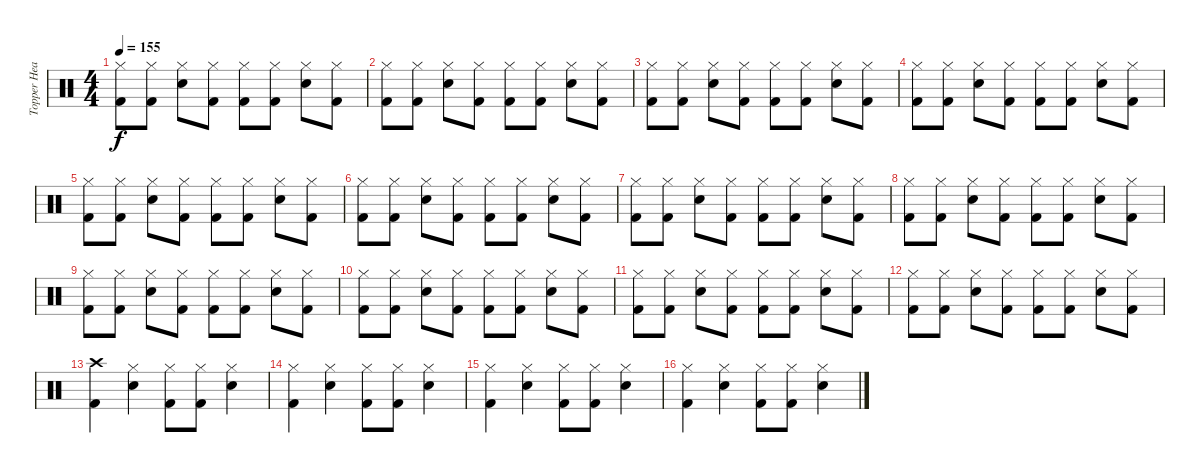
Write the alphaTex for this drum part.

\track ("Topper Headon - Drums" "Topper Hea") {instrument percussion}
\staff {score}
\articulation defaults
\ts (4 4)
\tempo 155
\clef neutral
\ks c
("Kick (hit) 2" "Hi-Hat (closed)").8{dy f} ("Kick (hit) 2" "Hi-Hat (closed)").8 ("Snare (hit) 2" "Hi-Hat (closed)").8 ("Kick (hit) 2" "Hi-Hat (closed)").8 ("Kick (hit) 2" "Hi-Hat (closed)").8 ("Kick (hit) 2" "Hi-Hat (closed)").8 ("Snare (hit) 2" "Hi-Hat (closed)").8 ("Kick (hit) 2" "Hi-Hat (closed)").8 |
("Kick (hit) 2" "Hi-Hat (closed)").8 ("Kick (hit) 2" "Hi-Hat (closed)").8 ("Snare (hit) 2" "Hi-Hat (closed)").8 ("Kick (hit) 2" "Hi-Hat (closed)").8 ("Kick (hit) 2" "Hi-Hat (closed)").8 ("Kick (hit) 2" "Hi-Hat (closed)").8 ("Snare (hit) 2" "Hi-Hat (closed)").8 ("Kick (hit) 2" "Hi-Hat (closed)").8 |
("Kick (hit) 2" "Hi-Hat (closed)").8 ("Kick (hit) 2" "Hi-Hat (closed)").8 ("Snare (hit) 2" "Hi-Hat (closed)").8 ("Kick (hit) 2" "Hi-Hat (closed)").8 ("Kick (hit) 2" "Hi-Hat (closed)").8 ("Kick (hit) 2" "Hi-Hat (closed)").8 ("Snare (hit) 2" "Hi-Hat (closed)").8 ("Kick (hit) 2" "Hi-Hat (closed)").8 |
("Kick (hit) 2" "Hi-Hat (closed)").8 ("Kick (hit) 2" "Hi-Hat (closed)").8 ("Snare (hit) 2" "Hi-Hat (closed)").8 ("Kick (hit) 2" "Hi-Hat (closed)").8 ("Kick (hit) 2" "Hi-Hat (closed)").8 ("Kick (hit) 2" "Hi-Hat (closed)").8 ("Snare (hit) 2" "Hi-Hat (closed)").8 ("Kick (hit) 2" "Hi-Hat (closed)").8 |
("Kick (hit) 2" "Hi-Hat (closed)").8 ("Kick (hit) 2" "Hi-Hat (closed)").8 ("Snare (hit) 2" "Hi-Hat (closed)").8 ("Kick (hit) 2" "Hi-Hat (closed)").8 ("Kick (hit) 2" "Hi-Hat (closed)").8 ("Kick (hit) 2" "Hi-Hat (closed)").8 ("Snare (hit) 2" "Hi-Hat (closed)").8 ("Kick (hit) 2" "Hi-Hat (closed)").8 |
("Kick (hit) 2" "Hi-Hat (closed)").8 ("Kick (hit) 2" "Hi-Hat (closed)").8 ("Snare (hit) 2" "Hi-Hat (closed)").8 ("Kick (hit) 2" "Hi-Hat (closed)").8 ("Kick (hit) 2" "Hi-Hat (closed)").8 ("Kick (hit) 2" "Hi-Hat (closed)").8 ("Snare (hit) 2" "Hi-Hat (closed)").8 ("Kick (hit) 2" "Hi-Hat (closed)").8 |
("Kick (hit) 2" "Hi-Hat (closed)").8 ("Kick (hit) 2" "Hi-Hat (closed)").8 ("Snare (hit) 2" "Hi-Hat (closed)").8 ("Kick (hit) 2" "Hi-Hat (closed)").8 ("Kick (hit) 2" "Hi-Hat (closed)").8 ("Kick (hit) 2" "Hi-Hat (closed)").8 ("Snare (hit) 2" "Hi-Hat (closed)").8 ("Kick (hit) 2" "Hi-Hat (closed)").8 |
("Kick (hit) 2" "Hi-Hat (closed)").8 ("Kick (hit) 2" "Hi-Hat (closed)").8 ("Snare (hit) 2" "Hi-Hat (closed)").8 ("Kick (hit) 2" "Hi-Hat (closed)").8 ("Kick (hit) 2" "Hi-Hat (closed)").8 ("Kick (hit) 2" "Hi-Hat (closed)").8 ("Snare (hit) 2" "Hi-Hat (closed)").8 ("Kick (hit) 2" "Hi-Hat (closed)").8 |
("Kick (hit) 2" "Hi-Hat (closed)").8 ("Kick (hit) 2" "Hi-Hat (closed)").8 ("Snare (hit) 2" "Hi-Hat (closed)").8 ("Kick (hit) 2" "Hi-Hat (closed)").8 ("Kick (hit) 2" "Hi-Hat (closed)").8 ("Kick (hit) 2" "Hi-Hat (closed)").8 ("Snare (hit) 2" "Hi-Hat (closed)").8 ("Kick (hit) 2" "Hi-Hat (closed)").8 |
("Kick (hit) 2" "Hi-Hat (closed)").8 ("Kick (hit) 2" "Hi-Hat (closed)").8 ("Snare (hit) 2" "Hi-Hat (closed)").8 ("Kick (hit) 2" "Hi-Hat (closed)").8 ("Kick (hit) 2" "Hi-Hat (closed)").8 ("Kick (hit) 2" "Hi-Hat (closed)").8 ("Snare (hit) 2" "Hi-Hat (closed)").8 ("Kick (hit) 2" "Hi-Hat (closed)").8 |
("Kick (hit) 2" "Hi-Hat (closed)").8 ("Kick (hit) 2" "Hi-Hat (closed)").8 ("Snare (hit) 2" "Hi-Hat (closed)").8 ("Kick (hit) 2" "Hi-Hat (closed)").8 ("Kick (hit) 2" "Hi-Hat (closed)").8 ("Kick (hit) 2" "Hi-Hat (closed)").8 ("Snare (hit) 2" "Hi-Hat (closed)").8 ("Kick (hit) 2" "Hi-Hat (closed)").8 |
("Kick (hit) 2" "Hi-Hat (closed)").8 ("Kick (hit) 2" "Hi-Hat (closed)").8 ("Snare (hit) 2" "Hi-Hat (closed)").8 ("Kick (hit) 2" "Hi-Hat (closed)").8 ("Kick (hit) 2" "Hi-Hat (closed)").8 ("Kick (hit) 2" "Hi-Hat (closed)").8 ("Snare (hit) 2" "Hi-Hat (closed)").8 ("Kick (hit) 2" "Hi-Hat (closed)").8 |
("Kick (hit) 2" "Crash high (hit)").4 ("Snare (hit) 2" "Hi-Hat (closed)").4 ("Kick (hit) 2" "Hi-Hat (closed)").8 ("Kick (hit) 2" "Hi-Hat (closed)").8 ("Snare (hit) 2" "Hi-Hat (closed)").4 |
("Kick (hit) 2" "Hi-Hat (closed)").4 ("Snare (hit) 2" "Hi-Hat (closed)").4 ("Kick (hit) 2" "Hi-Hat (closed)").8 ("Kick (hit) 2" "Hi-Hat (closed)").8 ("Snare (hit) 2" "Hi-Hat (closed)").4 |
("Kick (hit) 2" "Hi-Hat (closed)").4 ("Snare (hit) 2" "Hi-Hat (closed)").4 ("Kick (hit) 2" "Hi-Hat (closed)").8 ("Kick (hit) 2" "Hi-Hat (closed)").8 ("Snare (hit) 2" "Hi-Hat (closed)").4 |
("Kick (hit) 2" "Hi-Hat (closed)").4 ("Snare (hit) 2" "Hi-Hat (closed)").4 ("Kick (hit) 2" "Hi-Hat (closed)").8 ("Kick (hit) 2" "Hi-Hat (closed)").8 ("Snare (hit) 2" "Hi-Hat (closed)").4
